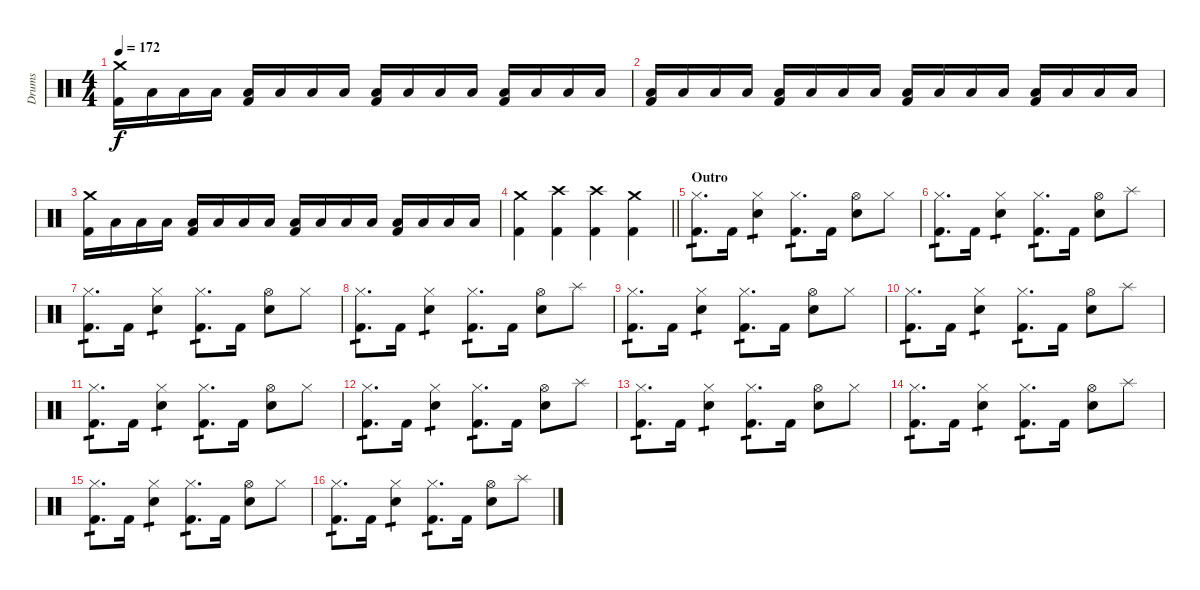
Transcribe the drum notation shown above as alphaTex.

\track ("Drums" "Drums") {instrument percussion}
\staff {score}
\articulation defaults
\ts (4 4)
\tempo 172
\clef neutral
\ks c
("Crash medium (hit)" "Kick (hit) 2").16{dy f} "Low Tom (hit)".16 "Low Tom (hit)".16 "Low Tom (hit)".16 ("Low Tom (hit)" "Kick (hit) 2").16 "Low Tom (hit)".16 "Low Tom (hit)".16 "Low Tom (hit)".16 ("Low Tom (hit)" "Kick (hit) 2").16 "Low Tom (hit)".16 "Low Tom (hit)".16 "Low Tom (hit)".16 ("Low Tom (hit)" "Kick (hit) 2").16 "Low Tom (hit)".16 "Low Tom (hit)".16 "Low Tom (hit)".16 |
("Low Tom (hit)" "Kick (hit) 2").16 "Low Tom (hit)".16 "Low Tom (hit)".16 "Low Tom (hit)".16 ("Low Tom (hit)" "Kick (hit) 2").16 "Low Tom (hit)".16 "Low Tom (hit)".16 "Low Tom (hit)".16 ("Low Tom (hit)" "Kick (hit) 2").16 "Low Tom (hit)".16 "Low Tom (hit)".16 "Low Tom (hit)".16 ("Low Tom (hit)" "Kick (hit) 2").16 "Low Tom (hit)".16 "Low Tom (hit)".16 "Low Tom (hit)".16 |
("Crash medium (hit)" "Kick (hit) 2").16 "Low Tom (hit)".16 "Low Tom (hit)".16 "Low Tom (hit)".16 ("Low Tom (hit)" "Kick (hit) 2").16 "Low Tom (hit)".16 "Low Tom (hit)".16 "Low Tom (hit)".16 ("Low Tom (hit)" "Kick (hit) 2").16 "Low Tom (hit)".16 "Low Tom (hit)".16 "Low Tom (hit)".16 ("Low Tom (hit)" "Kick (hit) 2").16 "Low Tom (hit)".16 "Low Tom (hit)".16 "Low Tom (hit)".16 |
\barLineRight lightlight
("Crash medium (hit)" "Kick (hit) 2").4 ("Crash high (hit)" "Kick (hit) 2").4 ("Crash high (hit)" "Kick (hit) 2").4 ("Crash medium (hit)" "Kick (hit) 2").4 |
\section ("" "Outro")
("Hi-Hat (closed)" "Kick (hit) 2").8{d tp 1} "Kick (hit) 2".16 ("Hi-Hat (closed)" "Electric Snare (hit)").4{tp 1} ("Hi-Hat (closed)" "Kick (hit) 2").8{d tp 1} "Kick (hit) 2".16 ("Hi-Hat (open)" "Electric Snare (hit)").8 "Hi-Hat (closed)".8 |
("Hi-Hat (closed)" "Kick (hit) 2").8{d tp 1} "Kick (hit) 2".16 ("Hi-Hat (closed)" "Electric Snare (hit)").4{tp 1} ("Hi-Hat (closed)" "Kick (hit) 2").8{d tp 1} "Kick (hit) 2".16 ("Hi-Hat (open)" "Electric Snare (hit)").8 "Splash (hit)".8 |
("Hi-Hat (closed)" "Kick (hit) 2").8{d tp 1} "Kick (hit) 2".16 ("Hi-Hat (closed)" "Electric Snare (hit)").4{tp 1} ("Hi-Hat (closed)" "Kick (hit) 2").8{d tp 1} "Kick (hit) 2".16 ("Hi-Hat (open)" "Electric Snare (hit)").8 "Hi-Hat (closed)".8 |
("Hi-Hat (closed)" "Kick (hit) 2").8{d tp 1} "Kick (hit) 2".16 ("Hi-Hat (closed)" "Electric Snare (hit)").4{tp 1} ("Hi-Hat (closed)" "Kick (hit) 2").8{d tp 1} "Kick (hit) 2".16 ("Hi-Hat (open)" "Electric Snare (hit)").8 "Splash (hit)".8 |
("Hi-Hat (closed)" "Kick (hit) 2").8{d tp 1} "Kick (hit) 2".16 ("Hi-Hat (closed)" "Electric Snare (hit)").4{tp 1} ("Hi-Hat (closed)" "Kick (hit) 2").8{d tp 1} "Kick (hit) 2".16 ("Hi-Hat (open)" "Electric Snare (hit)").8 "Hi-Hat (closed)".8 |
("Hi-Hat (closed)" "Kick (hit) 2").8{d tp 1} "Kick (hit) 2".16 ("Hi-Hat (closed)" "Electric Snare (hit)").4{tp 1} ("Hi-Hat (closed)" "Kick (hit) 2").8{d tp 1} "Kick (hit) 2".16 ("Hi-Hat (open)" "Electric Snare (hit)").8 "Splash (hit)".8 |
("Hi-Hat (closed)" "Kick (hit) 2").8{d tp 1} "Kick (hit) 2".16 ("Hi-Hat (closed)" "Electric Snare (hit)").4{tp 1} ("Hi-Hat (closed)" "Kick (hit) 2").8{d tp 1} "Kick (hit) 2".16 ("Hi-Hat (open)" "Electric Snare (hit)").8 "Hi-Hat (closed)".8 |
("Hi-Hat (closed)" "Kick (hit) 2").8{d tp 1} "Kick (hit) 2".16 ("Hi-Hat (closed)" "Electric Snare (hit)").4{tp 1} ("Hi-Hat (closed)" "Kick (hit) 2").8{d tp 1} "Kick (hit) 2".16 ("Hi-Hat (open)" "Electric Snare (hit)").8 "Splash (hit)".8 |
("Hi-Hat (closed)" "Kick (hit) 2").8{d tp 1} "Kick (hit) 2".16 ("Hi-Hat (closed)" "Electric Snare (hit)").4{tp 1} ("Hi-Hat (closed)" "Kick (hit) 2").8{d tp 1} "Kick (hit) 2".16 ("Hi-Hat (open)" "Electric Snare (hit)").8 "Hi-Hat (closed)".8 |
("Hi-Hat (closed)" "Kick (hit) 2").8{d tp 1} "Kick (hit) 2".16 ("Hi-Hat (closed)" "Electric Snare (hit)").4{tp 1} ("Hi-Hat (closed)" "Kick (hit) 2").8{d tp 1} "Kick (hit) 2".16 ("Hi-Hat (open)" "Electric Snare (hit)").8 "Splash (hit)".8 |
("Hi-Hat (closed)" "Kick (hit) 2").8{d tp 1} "Kick (hit) 2".16 ("Hi-Hat (closed)" "Electric Snare (hit)").4{tp 1} ("Hi-Hat (closed)" "Kick (hit) 2").8{d tp 1} "Kick (hit) 2".16 ("Hi-Hat (open)" "Electric Snare (hit)").8 "Hi-Hat (closed)".8 |
("Hi-Hat (closed)" "Kick (hit) 2").8{d tp 1} "Kick (hit) 2".16 ("Hi-Hat (closed)" "Electric Snare (hit)").4{tp 1} ("Hi-Hat (closed)" "Kick (hit) 2").8{d tp 1} "Kick (hit) 2".16 ("Hi-Hat (open)" "Electric Snare (hit)").8 "Splash (hit)".8
